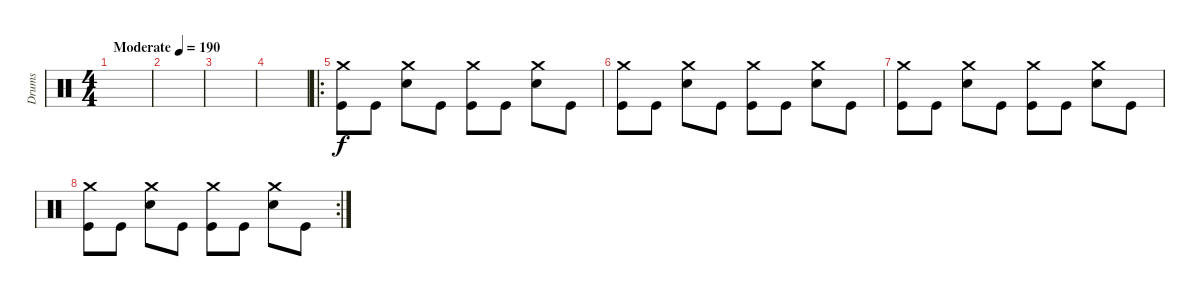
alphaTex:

\track ("Drums" "Drums") {instrument percussion}
\staff {score}
\articulation defaults
\ts (4 4)
\tempo (190 "Moderate")
\clef neutral
\ks c
|
|
|
|
\ro
("Crash medium (hit)" "Kick (hit)").8 "Kick (hit)".8 ("Crash medium (hit)" "Snare (hit) 2").8 "Kick (hit)".8 ("Crash medium (hit)" "Kick (hit)").8 "Kick (hit)".8 ("Crash medium (hit)" "Snare (hit) 2").8 "Kick (hit)".8 |
("Crash medium (hit)" "Kick (hit)").8 "Kick (hit)".8 ("Crash medium (hit)" "Snare (hit) 2").8 "Kick (hit)".8 ("Crash medium (hit)" "Kick (hit)").8 "Kick (hit)".8 ("Crash medium (hit)" "Snare (hit) 2").8 "Kick (hit)".8 |
("Crash medium (hit)" "Kick (hit)").8 "Kick (hit)".8 ("Crash medium (hit)" "Snare (hit) 2").8 "Kick (hit)".8 ("Crash medium (hit)" "Kick (hit)").8 "Kick (hit)".8 ("Crash medium (hit)" "Snare (hit) 2").8 "Kick (hit)".8 |
\rc 2
("Crash medium (hit)" "Kick (hit)").8 "Kick (hit)".8 ("Crash medium (hit)" "Snare (hit) 2").8 "Kick (hit)".8 ("Crash medium (hit)" "Kick (hit)").8 "Kick (hit)".8 ("Crash medium (hit)" "Snare (hit) 2").8 "Kick (hit)".8
